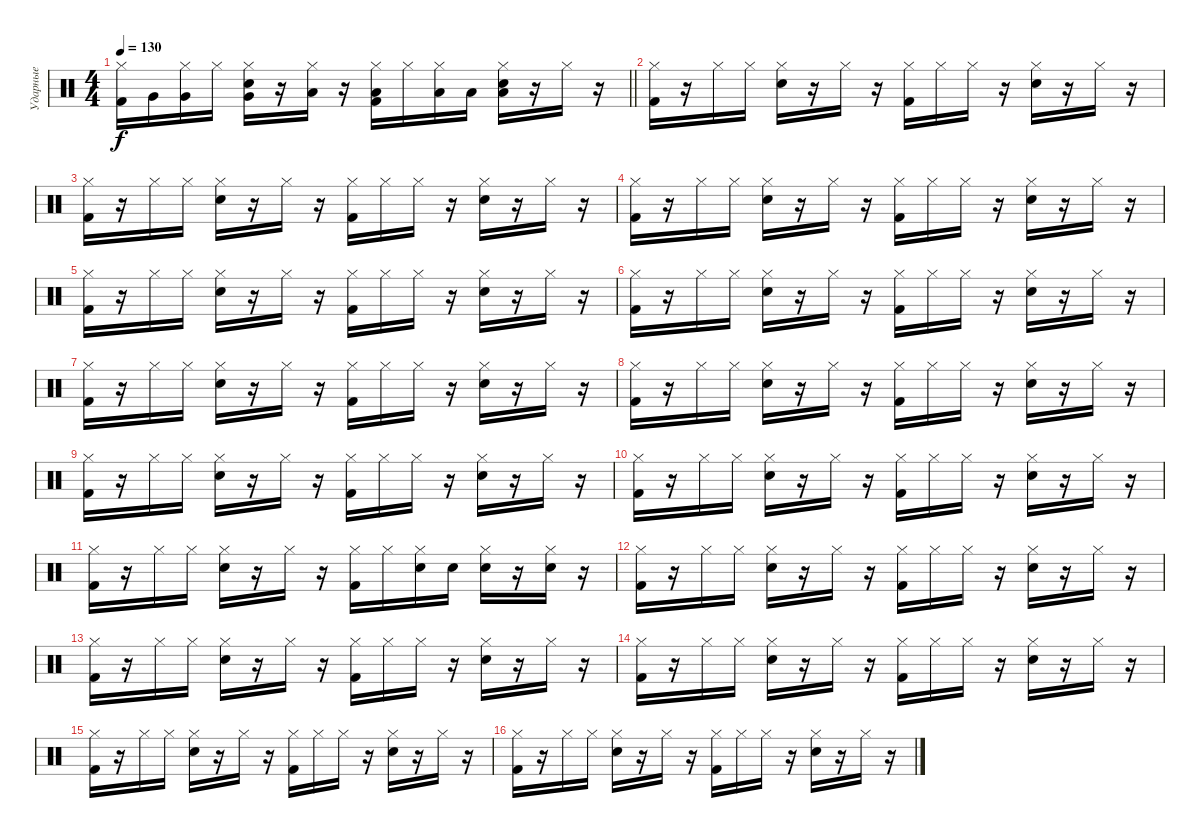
\track ("Ударные" "Ударные") {instrument percussion}
\staff {score}
\articulation defaults
\ts (4 4)
\tempo 130
\clef neutral
\barLineRight lightlight
\ks c
("Kick (hit) 2" "Hi-Hat (closed)").16{dy f} "Very Low Tom (hit)".16 ("Very Low Tom (hit)" "Hi-Hat (closed)").16 "Hi-Hat (closed)".16 ("Snare (hit) 2" "Very Low Tom (hit)" "Hi-Hat (closed)").16 r.16 ("Low Tom (hit)" "Hi-Hat (closed)").16 r.16 ("Kick (hit) 2" "Low Tom (hit)" "Hi-Hat (closed)").16 "Hi-Hat (closed)".16 ("Low Tom (hit)" "Hi-Hat (closed)").16 "Low Tom (hit)".16 ("Snare (hit) 2" "Low Tom (hit)" "Hi-Hat (closed)").16 r.16 "Hi-Hat (closed)".16 r.16 |
("Kick (hit) 2" "Hi-Hat (closed)").16 r.16 "Hi-Hat (closed)".16 "Hi-Hat (closed)".16 ("Snare (hit) 2" "Hi-Hat (closed)").16 r.16 "Hi-Hat (closed)".16 r.16 ("Kick (hit) 2" "Hi-Hat (closed)").16 "Hi-Hat (closed)".16 "Hi-Hat (closed)".16 r.16 ("Snare (hit) 2" "Hi-Hat (closed)").16 r.16 "Hi-Hat (closed)".16 r.16 |
("Kick (hit) 2" "Hi-Hat (closed)").16 r.16 "Hi-Hat (closed)".16 "Hi-Hat (closed)".16 ("Snare (hit) 2" "Hi-Hat (closed)").16 r.16 "Hi-Hat (closed)".16 r.16 ("Kick (hit) 2" "Hi-Hat (closed)").16 "Hi-Hat (closed)".16 "Hi-Hat (closed)".16 r.16 ("Snare (hit) 2" "Hi-Hat (closed)").16 r.16 "Hi-Hat (closed)".16 r.16 |
("Kick (hit) 2" "Hi-Hat (closed)").16 r.16 "Hi-Hat (closed)".16 "Hi-Hat (closed)".16 ("Snare (hit) 2" "Hi-Hat (closed)").16 r.16 "Hi-Hat (closed)".16 r.16 ("Kick (hit) 2" "Hi-Hat (closed)").16 "Hi-Hat (closed)".16 "Hi-Hat (closed)".16 r.16 ("Snare (hit) 2" "Hi-Hat (closed)").16 r.16 "Hi-Hat (closed)".16 r.16 |
("Kick (hit) 2" "Hi-Hat (closed)").16 r.16 "Hi-Hat (closed)".16 "Hi-Hat (closed)".16 ("Snare (hit) 2" "Hi-Hat (closed)").16 r.16 "Hi-Hat (closed)".16 r.16 ("Kick (hit) 2" "Hi-Hat (closed)").16 "Hi-Hat (closed)".16 "Hi-Hat (closed)".16 r.16 ("Snare (hit) 2" "Hi-Hat (closed)").16 r.16 "Hi-Hat (closed)".16 r.16 |
("Kick (hit) 2" "Hi-Hat (closed)").16 r.16 "Hi-Hat (closed)".16 "Hi-Hat (closed)".16 ("Snare (hit) 2" "Hi-Hat (closed)").16 r.16 "Hi-Hat (closed)".16 r.16 ("Kick (hit) 2" "Hi-Hat (closed)").16 "Hi-Hat (closed)".16 "Hi-Hat (closed)".16 r.16 ("Snare (hit) 2" "Hi-Hat (closed)").16 r.16 "Hi-Hat (closed)".16 r.16 |
("Kick (hit) 2" "Hi-Hat (closed)").16 r.16 "Hi-Hat (closed)".16 "Hi-Hat (closed)".16 ("Snare (hit) 2" "Hi-Hat (closed)").16 r.16 "Hi-Hat (closed)".16 r.16 ("Kick (hit) 2" "Hi-Hat (closed)").16 "Hi-Hat (closed)".16 "Hi-Hat (closed)".16 r.16 ("Snare (hit) 2" "Hi-Hat (closed)").16 r.16 "Hi-Hat (closed)".16 r.16 |
("Kick (hit) 2" "Hi-Hat (closed)").16 r.16 "Hi-Hat (closed)".16 "Hi-Hat (closed)".16 ("Snare (hit) 2" "Hi-Hat (closed)").16 r.16 "Hi-Hat (closed)".16 r.16 ("Kick (hit) 2" "Hi-Hat (closed)").16 "Hi-Hat (closed)".16 "Hi-Hat (closed)".16 r.16 ("Snare (hit) 2" "Hi-Hat (closed)").16 r.16 "Hi-Hat (closed)".16 r.16 |
("Kick (hit) 2" "Hi-Hat (closed)").16 r.16 "Hi-Hat (closed)".16 "Hi-Hat (closed)".16 ("Snare (hit) 2" "Hi-Hat (closed)").16 r.16 "Hi-Hat (closed)".16 r.16 ("Kick (hit) 2" "Hi-Hat (closed)").16 "Hi-Hat (closed)".16 "Hi-Hat (closed)".16 r.16 ("Snare (hit) 2" "Hi-Hat (closed)").16 r.16 "Hi-Hat (closed)".16 r.16 |
("Kick (hit) 2" "Hi-Hat (closed)").16 r.16 "Hi-Hat (closed)".16 "Hi-Hat (closed)".16 ("Snare (hit) 2" "Hi-Hat (closed)").16 r.16 "Hi-Hat (closed)".16 r.16 ("Kick (hit) 2" "Hi-Hat (closed)").16 "Hi-Hat (closed)".16 "Hi-Hat (closed)".16 r.16 ("Snare (hit) 2" "Hi-Hat (closed)").16 r.16 "Hi-Hat (closed)".16 r.16 |
("Kick (hit) 2" "Hi-Hat (closed)").16 r.16 "Hi-Hat (closed)".16 "Hi-Hat (closed)".16 ("Snare (hit) 2" "Hi-Hat (closed)").16 r.16 "Hi-Hat (closed)".16 r.16 ("Kick (hit) 2" "Hi-Hat (closed)").16 "Hi-Hat (closed)".16 ("Snare (hit) 2" "Hi-Hat (closed)").16 "Snare (hit) 2".16 ("Snare (hit) 2" "Hi-Hat (closed)").16 r.16 ("Snare (hit) 2" "Hi-Hat (closed)").16 r.16 |
("Kick (hit) 2" "Hi-Hat (closed)").16 r.16 "Hi-Hat (closed)".16 "Hi-Hat (closed)".16 ("Snare (hit) 2" "Hi-Hat (closed)").16 r.16 "Hi-Hat (closed)".16 r.16 ("Kick (hit) 2" "Hi-Hat (closed)").16 "Hi-Hat (closed)".16 "Hi-Hat (closed)".16 r.16 ("Snare (hit) 2" "Hi-Hat (closed)").16 r.16 "Hi-Hat (closed)".16 r.16 |
("Kick (hit) 2" "Hi-Hat (closed)").16 r.16 "Hi-Hat (closed)".16 "Hi-Hat (closed)".16 ("Snare (hit) 2" "Hi-Hat (closed)").16 r.16 "Hi-Hat (closed)".16 r.16 ("Kick (hit) 2" "Hi-Hat (closed)").16 "Hi-Hat (closed)".16 "Hi-Hat (closed)".16 r.16 ("Snare (hit) 2" "Hi-Hat (closed)").16 r.16 "Hi-Hat (closed)".16 r.16 |
("Kick (hit) 2" "Hi-Hat (closed)").16 r.16 "Hi-Hat (closed)".16 "Hi-Hat (closed)".16 ("Snare (hit) 2" "Hi-Hat (closed)").16 r.16 "Hi-Hat (closed)".16 r.16 ("Kick (hit) 2" "Hi-Hat (closed)").16 "Hi-Hat (closed)".16 "Hi-Hat (closed)".16 r.16 ("Snare (hit) 2" "Hi-Hat (closed)").16 r.16 "Hi-Hat (closed)".16 r.16 |
("Kick (hit) 2" "Hi-Hat (closed)").16 r.16 "Hi-Hat (closed)".16 "Hi-Hat (closed)".16 ("Snare (hit) 2" "Hi-Hat (closed)").16 r.16 "Hi-Hat (closed)".16 r.16 ("Kick (hit) 2" "Hi-Hat (closed)").16 "Hi-Hat (closed)".16 "Hi-Hat (closed)".16 r.16 ("Snare (hit) 2" "Hi-Hat (closed)").16 r.16 "Hi-Hat (closed)".16 r.16 |
("Kick (hit) 2" "Hi-Hat (closed)").16 r.16 "Hi-Hat (closed)".16 "Hi-Hat (closed)".16 ("Snare (hit) 2" "Hi-Hat (closed)").16 r.16 "Hi-Hat (closed)".16 r.16 ("Kick (hit) 2" "Hi-Hat (closed)").16 "Hi-Hat (closed)".16 "Hi-Hat (closed)".16 r.16 ("Snare (hit) 2" "Hi-Hat (closed)").16 r.16 "Hi-Hat (closed)".16 r.16
